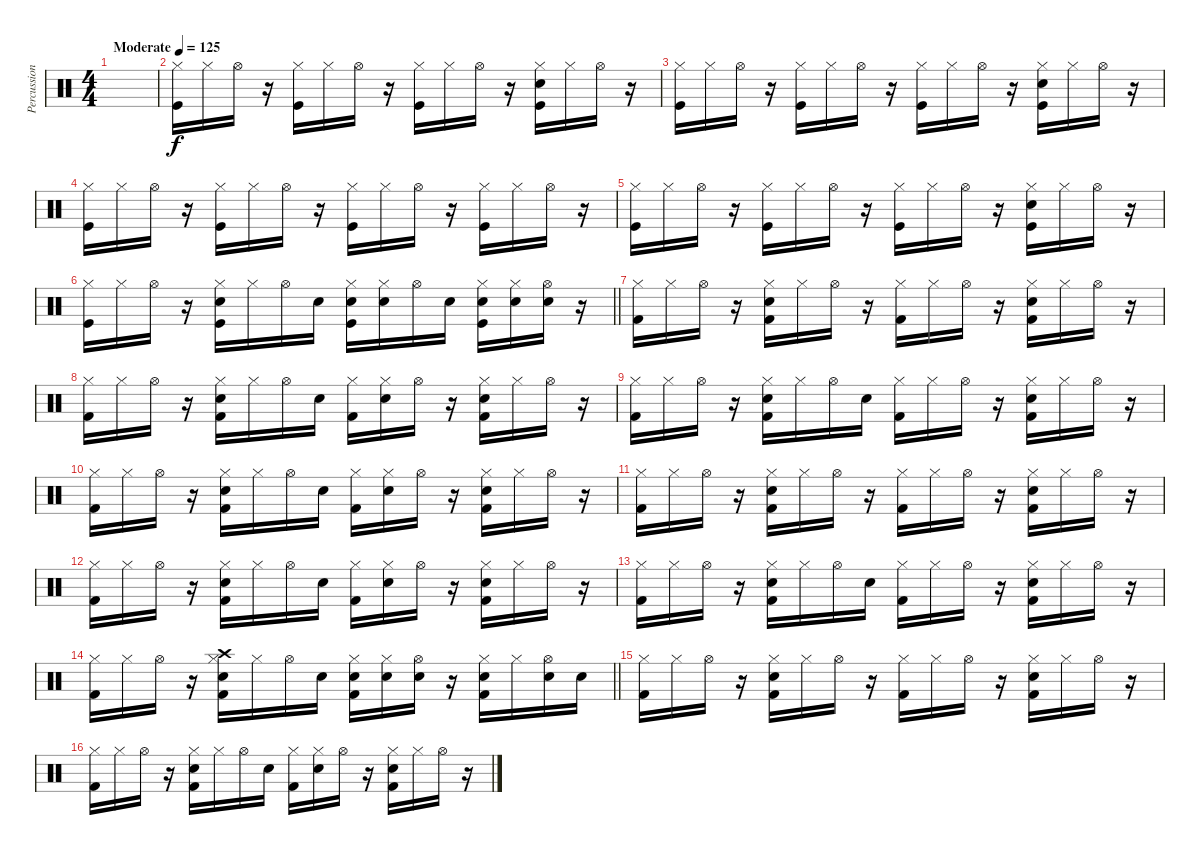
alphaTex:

\track ("Percussion" "Percussion") {instrument percussion}
\staff {score}
\articulation defaults
\ts (4 4)
\tempo (125 "Moderate")
\clef neutral
\ks c
|
("Hi-Hat (closed)" "Kick (hit)").16 "Hi-Hat (closed)".16 "Hi-Hat (open)".16 r.16 ("Hi-Hat (closed)" "Kick (hit)").16 "Hi-Hat (closed)".16 "Hi-Hat (open)".16 r.16 ("Hi-Hat (closed)" "Kick (hit)").16 "Hi-Hat (closed)".16 "Hi-Hat (open)".16 r.16 ("Hi-Hat (closed)" "Electric Snare (hit)" "Kick (hit)").16 "Hi-Hat (closed)".16 "Hi-Hat (open)".16 r.16 |
("Hi-Hat (closed)" "Kick (hit)").16 "Hi-Hat (closed)".16 "Hi-Hat (open)".16 r.16 ("Hi-Hat (closed)" "Kick (hit)").16 "Hi-Hat (closed)".16 "Hi-Hat (open)".16 r.16 ("Hi-Hat (closed)" "Kick (hit)").16 "Hi-Hat (closed)".16 "Hi-Hat (open)".16 r.16 ("Hi-Hat (closed)" "Electric Snare (hit)" "Kick (hit)").16 "Hi-Hat (closed)".16 "Hi-Hat (open)".16 r.16 |
("Hi-Hat (closed)" "Kick (hit)").16 "Hi-Hat (closed)".16 "Hi-Hat (open)".16 r.16 ("Hi-Hat (closed)" "Kick (hit)").16 "Hi-Hat (closed)".16 "Hi-Hat (open)".16 r.16 ("Hi-Hat (closed)" "Kick (hit)").16 "Hi-Hat (closed)".16 "Hi-Hat (open)".16 r.16 ("Hi-Hat (closed)" "Kick (hit)").16 "Hi-Hat (closed)".16 "Hi-Hat (open)".16 r.16 |
("Hi-Hat (closed)" "Kick (hit)").16 "Hi-Hat (closed)".16 "Hi-Hat (open)".16 r.16 ("Hi-Hat (closed)" "Kick (hit)").16 "Hi-Hat (closed)".16 "Hi-Hat (open)".16 r.16 ("Hi-Hat (closed)" "Kick (hit)").16 "Hi-Hat (closed)".16 "Hi-Hat (open)".16 r.16 ("Hi-Hat (closed)" "Electric Snare (hit)" "Kick (hit)").16 "Hi-Hat (closed)".16 "Hi-Hat (open)".16 r.16 |
\barLineRight lightlight
("Hi-Hat (closed)" "Kick (hit)").16 "Hi-Hat (closed)".16 "Hi-Hat (open)".16 r.16 ("Hi-Hat (closed)" "Electric Snare (hit)" "Kick (hit)").16 "Hi-Hat (closed)".16 "Hi-Hat (open)".16 "Electric Snare (hit)".16 ("Hi-Hat (closed)" "Electric Snare (hit)" "Kick (hit)").16 ("Hi-Hat (closed)" "Electric Snare (hit)").16 "Hi-Hat (open)".16 "Electric Snare (hit)".16 ("Hi-Hat (closed)" "Electric Snare (hit)" "Kick (hit)").16 ("Hi-Hat (closed)" "Electric Snare (hit)").16 ("Hi-Hat (open)" "Electric Snare (hit)").16 r.16 |
("Hi-Hat (closed)" "Kick (hit) 2").16 "Hi-Hat (closed)".16 "Hi-Hat (open)".16 r.16 ("Hi-Hat (closed)" "Electric Snare (hit)" "Kick (hit) 2").16 "Hi-Hat (closed)".16 "Hi-Hat (open)".16 r.16 ("Hi-Hat (closed)" "Kick (hit) 2").16 "Hi-Hat (closed)".16 "Hi-Hat (open)".16 r.16 ("Hi-Hat (closed)" "Electric Snare (hit)" "Kick (hit) 2").16 "Hi-Hat (closed)".16 "Hi-Hat (open)".16 r.16 |
("Hi-Hat (closed)" "Kick (hit) 2").16 "Hi-Hat (closed)".16 "Hi-Hat (open)".16 r.16 ("Hi-Hat (closed)" "Electric Snare (hit)" "Kick (hit) 2").16 "Hi-Hat (closed)".16 "Hi-Hat (open)".16 "Electric Snare (hit)".16 ("Hi-Hat (closed)" "Kick (hit) 2").16 ("Hi-Hat (closed)" "Electric Snare (hit)").16 "Hi-Hat (open)".16 r.16 ("Hi-Hat (closed)" "Electric Snare (hit)" "Kick (hit) 2").16 "Hi-Hat (closed)".16 "Hi-Hat (open)".16 r.16 |
("Hi-Hat (closed)" "Kick (hit) 2").16 "Hi-Hat (closed)".16 "Hi-Hat (open)".16 r.16 ("Hi-Hat (closed)" "Electric Snare (hit)" "Kick (hit) 2").16 "Hi-Hat (closed)".16 "Hi-Hat (open)".16 "Electric Snare (hit)".16 ("Hi-Hat (closed)" "Kick (hit) 2").16 "Hi-Hat (closed)".16 "Hi-Hat (open)".16 r.16 ("Hi-Hat (closed)" "Electric Snare (hit)" "Kick (hit) 2").16 "Hi-Hat (closed)".16 "Hi-Hat (open)".16 r.16 |
("Hi-Hat (closed)" "Kick (hit) 2").16 "Hi-Hat (closed)".16 "Hi-Hat (open)".16 r.16 ("Hi-Hat (closed)" "Electric Snare (hit)" "Kick (hit) 2").16 "Hi-Hat (closed)".16 "Hi-Hat (open)".16 "Electric Snare (hit)".16 ("Hi-Hat (closed)" "Kick (hit) 2").16 ("Hi-Hat (closed)" "Electric Snare (hit)").16 "Hi-Hat (open)".16 r.16 ("Hi-Hat (closed)" "Electric Snare (hit)" "Kick (hit) 2").16 "Hi-Hat (closed)".16 "Hi-Hat (open)".16 r.16 |
("Hi-Hat (closed)" "Kick (hit) 2").16 "Hi-Hat (closed)".16 "Hi-Hat (open)".16 r.16 ("Hi-Hat (closed)" "Electric Snare (hit)" "Kick (hit) 2").16 "Hi-Hat (closed)".16 "Hi-Hat (open)".16 r.16 ("Hi-Hat (closed)" "Kick (hit) 2").16 "Hi-Hat (closed)".16 "Hi-Hat (open)".16 r.16 ("Hi-Hat (closed)" "Electric Snare (hit)" "Kick (hit) 2").16 "Hi-Hat (closed)".16 "Hi-Hat (open)".16 r.16 |
("Hi-Hat (closed)" "Kick (hit) 2").16 "Hi-Hat (closed)".16 "Hi-Hat (open)".16 r.16 ("Hi-Hat (closed)" "Electric Snare (hit)" "Kick (hit) 2").16 "Hi-Hat (closed)".16 "Hi-Hat (open)".16 "Electric Snare (hit)".16 ("Hi-Hat (closed)" "Kick (hit) 2").16 ("Hi-Hat (closed)" "Electric Snare (hit)").16 "Hi-Hat (open)".16 r.16 ("Hi-Hat (closed)" "Electric Snare (hit)" "Kick (hit) 2").16 "Hi-Hat (closed)".16 "Hi-Hat (open)".16 r.16 |
("Hi-Hat (closed)" "Kick (hit) 2").16 "Hi-Hat (closed)".16 "Hi-Hat (open)".16 r.16 ("Hi-Hat (closed)" "Electric Snare (hit)" "Kick (hit) 2").16 "Hi-Hat (closed)".16 "Hi-Hat (open)".16 "Electric Snare (hit)".16 ("Hi-Hat (closed)" "Kick (hit) 2").16 "Hi-Hat (closed)".16 "Hi-Hat (open)".16 r.16 ("Hi-Hat (closed)" "Electric Snare (hit)" "Kick (hit) 2").16 "Hi-Hat (closed)".16 "Hi-Hat (open)".16 r.16 |
\barLineRight lightlight
("Hi-Hat (closed)" "Kick (hit) 2").16 "Hi-Hat (closed)".16 "Hi-Hat (open)".16 r.16 ("Hi-Hat (closed)" "Crash high (hit)" "Electric Snare (hit)" "Kick (hit) 2").16 "Hi-Hat (closed)".16 "Hi-Hat (open)".16 "Electric Snare (hit)".16 ("Hi-Hat (closed)" "Electric Snare (hit)" "Kick (hit) 2").16 ("Hi-Hat (closed)" "Electric Snare (hit)").16 ("Hi-Hat (open)" "Electric Snare (hit)").16 r.16 ("Hi-Hat (closed)" "Electric Snare (hit)" "Kick (hit) 2").16 "Hi-Hat (closed)".16 ("Hi-Hat (open)" "Electric Snare (hit)").16 "Electric Snare (hit)".16 |
("Hi-Hat (closed)" "Kick (hit) 2").16 "Hi-Hat (closed)".16 "Hi-Hat (open)".16 r.16 ("Hi-Hat (closed)" "Electric Snare (hit)" "Kick (hit) 2").16 "Hi-Hat (closed)".16 "Hi-Hat (open)".16 r.16 ("Hi-Hat (closed)" "Kick (hit) 2").16 "Hi-Hat (closed)".16 "Hi-Hat (open)".16 r.16 ("Hi-Hat (closed)" "Electric Snare (hit)" "Kick (hit) 2").16 "Hi-Hat (closed)".16 "Hi-Hat (open)".16 r.16 |
("Hi-Hat (closed)" "Kick (hit) 2").16 "Hi-Hat (closed)".16 "Hi-Hat (open)".16 r.16 ("Hi-Hat (closed)" "Electric Snare (hit)" "Kick (hit) 2").16 "Hi-Hat (closed)".16 "Hi-Hat (open)".16 "Electric Snare (hit)".16 ("Hi-Hat (closed)" "Kick (hit) 2").16 ("Hi-Hat (closed)" "Electric Snare (hit)").16 "Hi-Hat (open)".16 r.16 ("Hi-Hat (closed)" "Electric Snare (hit)" "Kick (hit) 2").16 "Hi-Hat (closed)".16 "Hi-Hat (open)".16 r.16
